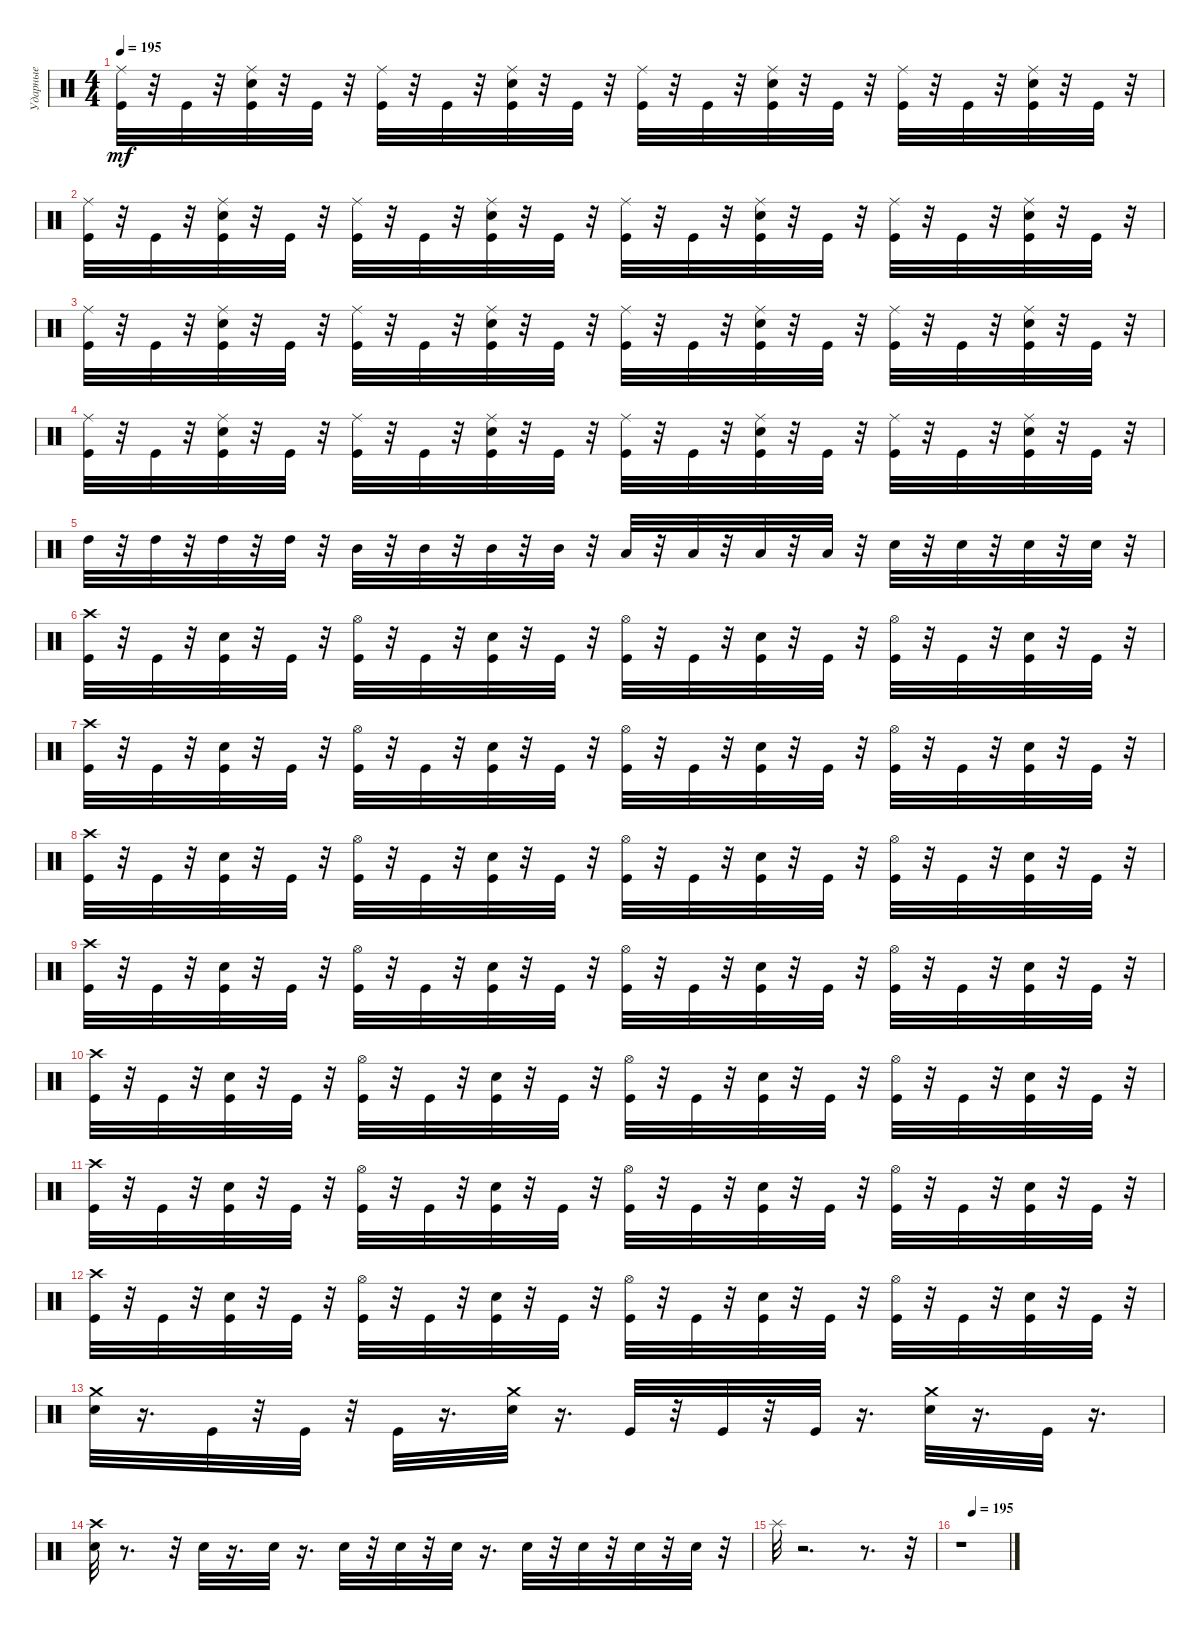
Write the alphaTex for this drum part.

\track ("Ударные" "Ударные") {instrument percussion}
\staff {score}
\articulation defaults
\ts (4 4)
\tempo 195
\clef neutral
\ks c
("Ride (middle)" "Kick (hit)").32{dy mf} r.32 "Kick (hit)".32 r.32 ("Electric Snare (hit)" "Kick (hit)" "Ride (middle)").32 r.32 "Kick (hit)".32 r.32 ("Ride (middle)" "Kick (hit)").32 r.32 "Kick (hit)".32 r.32 ("Ride (middle)" "Electric Snare (hit)" "Kick (hit)").32 r.32 "Kick (hit)".32 r.32 ("Ride (middle)" "Kick (hit)").32 r.32 "Kick (hit)".32 r.32 ("Electric Snare (hit)" "Kick (hit)" "Ride (middle)").32 r.32 "Kick (hit)".32 r.32 ("Ride (middle)" "Kick (hit)").32 r.32 "Kick (hit)".32 r.32 ("Ride (middle)" "Electric Snare (hit)" "Kick (hit)").32 r.32 "Kick (hit)".32 r.32 |
("Ride (middle)" "Kick (hit)").32 r.32 "Kick (hit)".32 r.32 ("Electric Snare (hit)" "Kick (hit)" "Ride (middle)").32 r.32 "Kick (hit)".32 r.32 ("Ride (middle)" "Kick (hit)").32 r.32 "Kick (hit)".32 r.32 ("Ride (middle)" "Electric Snare (hit)" "Kick (hit)").32 r.32 "Kick (hit)".32 r.32 ("Ride (middle)" "Kick (hit)").32 r.32 "Kick (hit)".32 r.32 ("Electric Snare (hit)" "Kick (hit)" "Ride (middle)").32 r.32 "Kick (hit)".32 r.32 ("Ride (middle)" "Kick (hit)").32 r.32 "Kick (hit)".32 r.32 ("Ride (middle)" "Electric Snare (hit)" "Kick (hit)").32 r.32 "Kick (hit)".32 r.32 |
("Ride (middle)" "Kick (hit)").32 r.32 "Kick (hit)".32 r.32 ("Electric Snare (hit)" "Kick (hit)" "Ride (middle)").32 r.32 "Kick (hit)".32 r.32 ("Ride (middle)" "Kick (hit)").32 r.32 "Kick (hit)".32 r.32 ("Ride (middle)" "Electric Snare (hit)" "Kick (hit)").32 r.32 "Kick (hit)".32 r.32 ("Ride (middle)" "Kick (hit)").32 r.32 "Kick (hit)".32 r.32 ("Electric Snare (hit)" "Kick (hit)" "Ride (middle)").32 r.32 "Kick (hit)".32 r.32 ("Ride (middle)" "Kick (hit)").32 r.32 "Kick (hit)".32 r.32 ("Ride (middle)" "Electric Snare (hit)" "Kick (hit)").32 r.32 "Kick (hit)".32 r.32 |
("Ride (middle)" "Kick (hit)").32 r.32 "Kick (hit)".32 r.32 ("Electric Snare (hit)" "Kick (hit)" "Ride (middle)").32 r.32 "Kick (hit)".32 r.32 ("Ride (middle)" "Kick (hit)").32 r.32 "Kick (hit)".32 r.32 ("Ride (middle)" "Electric Snare (hit)" "Kick (hit)").32 r.32 "Kick (hit)".32 r.32 ("Ride (middle)" "Kick (hit)").32 r.32 "Kick (hit)".32 r.32 ("Electric Snare (hit)" "Kick (hit)" "Ride (middle)").32 r.32 "Kick (hit)".32 r.32 ("Ride (middle)" "Kick (hit)").32 r.32 "Kick (hit)".32 r.32 ("Ride (middle)" "Electric Snare (hit)" "Kick (hit)").32 r.32 "Kick (hit)".32 r.32 |
"High Tom (hit)".32 r.32 "High Tom (hit)".32 r.32 "High Tom (hit)".32 r.32 "High Tom (hit)".32 r.32 "Mid Tom (hit)".32 r.32 "Mid Tom (hit)".32 r.32 "Mid Tom (hit)".32 r.32 "Mid Tom (hit)".32 r.32 "Low Tom (hit)".32 r.32 "Low Tom (hit)".32 r.32 "Low Tom (hit)".32 r.32 "Low Tom (hit)".32 r.32 "Electric Snare (hit)".32 r.32 "Electric Snare (hit)".32 r.32 "Electric Snare (hit)".32 r.32 "Electric Snare (hit)".32 r.32 |
("Crash high (hit)" "Kick (hit)").32 r.32 "Kick (hit)".32 r.32 ("Electric Snare (hit)" "Kick (hit)").32 r.32 "Kick (hit)".32 r.32 ("Hi-Hat (open)" "Kick (hit)").32 r.32 "Kick (hit)".32 r.32 ("Electric Snare (hit)" "Kick (hit)").32 r.32 "Kick (hit)".32 r.32 ("Hi-Hat (open)" "Kick (hit)").32 r.32 "Kick (hit)".32 r.32 ("Electric Snare (hit)" "Kick (hit)").32 r.32 "Kick (hit)".32 r.32 ("Hi-Hat (open)" "Kick (hit)").32 r.32 "Kick (hit)".32 r.32 ("Electric Snare (hit)" "Kick (hit)").32 r.32 "Kick (hit)".32 r.32 |
("Crash high (hit)" "Kick (hit)").32 r.32 "Kick (hit)".32 r.32 ("Electric Snare (hit)" "Kick (hit)").32 r.32 "Kick (hit)".32 r.32 ("Hi-Hat (open)" "Kick (hit)").32 r.32 "Kick (hit)".32 r.32 ("Electric Snare (hit)" "Kick (hit)").32 r.32 "Kick (hit)".32 r.32 ("Hi-Hat (open)" "Kick (hit)").32 r.32 "Kick (hit)".32 r.32 ("Electric Snare (hit)" "Kick (hit)").32 r.32 "Kick (hit)".32 r.32 ("Hi-Hat (open)" "Kick (hit)").32 r.32 "Kick (hit)".32 r.32 ("Electric Snare (hit)" "Kick (hit)").32 r.32 "Kick (hit)".32 r.32 |
("Crash high (hit)" "Kick (hit)").32 r.32 "Kick (hit)".32 r.32 ("Electric Snare (hit)" "Kick (hit)").32 r.32 "Kick (hit)".32 r.32 ("Hi-Hat (open)" "Kick (hit)").32 r.32 "Kick (hit)".32 r.32 ("Electric Snare (hit)" "Kick (hit)").32 r.32 "Kick (hit)".32 r.32 ("Hi-Hat (open)" "Kick (hit)").32 r.32 "Kick (hit)".32 r.32 ("Electric Snare (hit)" "Kick (hit)").32 r.32 "Kick (hit)".32 r.32 ("Hi-Hat (open)" "Kick (hit)").32 r.32 "Kick (hit)".32 r.32 ("Electric Snare (hit)" "Kick (hit)").32 r.32 "Kick (hit)".32 r.32 |
("Crash high (hit)" "Kick (hit)").32 r.32 "Kick (hit)".32 r.32 ("Electric Snare (hit)" "Kick (hit)").32 r.32 "Kick (hit)".32 r.32 ("Hi-Hat (open)" "Kick (hit)").32 r.32 "Kick (hit)".32 r.32 ("Electric Snare (hit)" "Kick (hit)").32 r.32 "Kick (hit)".32 r.32 ("Hi-Hat (open)" "Kick (hit)").32 r.32 "Kick (hit)".32 r.32 ("Electric Snare (hit)" "Kick (hit)").32 r.32 "Kick (hit)".32 r.32 ("Hi-Hat (open)" "Kick (hit)").32 r.32 "Kick (hit)".32 r.32 ("Electric Snare (hit)" "Kick (hit)").32 r.32 "Kick (hit)".32 r.32 |
("Crash high (hit)" "Kick (hit)").32 r.32 "Kick (hit)".32 r.32 ("Electric Snare (hit)" "Kick (hit)").32 r.32 "Kick (hit)".32 r.32 ("Hi-Hat (open)" "Kick (hit)").32 r.32 "Kick (hit)".32 r.32 ("Electric Snare (hit)" "Kick (hit)").32 r.32 "Kick (hit)".32 r.32 ("Hi-Hat (open)" "Kick (hit)").32 r.32 "Kick (hit)".32 r.32 ("Electric Snare (hit)" "Kick (hit)").32 r.32 "Kick (hit)".32 r.32 ("Hi-Hat (open)" "Kick (hit)").32 r.32 "Kick (hit)".32 r.32 ("Electric Snare (hit)" "Kick (hit)").32 r.32 "Kick (hit)".32 r.32 |
("Crash high (hit)" "Kick (hit)").32 r.32 "Kick (hit)".32 r.32 ("Electric Snare (hit)" "Kick (hit)").32 r.32 "Kick (hit)".32 r.32 ("Hi-Hat (open)" "Kick (hit)").32 r.32 "Kick (hit)".32 r.32 ("Electric Snare (hit)" "Kick (hit)").32 r.32 "Kick (hit)".32 r.32 ("Hi-Hat (open)" "Kick (hit)").32 r.32 "Kick (hit)".32 r.32 ("Electric Snare (hit)" "Kick (hit)").32 r.32 "Kick (hit)".32 r.32 ("Hi-Hat (open)" "Kick (hit)").32 r.32 "Kick (hit)".32 r.32 ("Electric Snare (hit)" "Kick (hit)").32 r.32 "Kick (hit)".32 r.32 |
("Crash high (hit)" "Kick (hit)").32 r.32 "Kick (hit)".32 r.32 ("Electric Snare (hit)" "Kick (hit)").32 r.32 "Kick (hit)".32 r.32 ("Hi-Hat (open)" "Kick (hit)").32 r.32 "Kick (hit)".32 r.32 ("Electric Snare (hit)" "Kick (hit)").32 r.32 "Kick (hit)".32 r.32 ("Hi-Hat (open)" "Kick (hit)").32 r.32 "Kick (hit)".32 r.32 ("Electric Snare (hit)" "Kick (hit)").32 r.32 "Kick (hit)".32 r.32 ("Hi-Hat (open)" "Kick (hit)").32 r.32 "Kick (hit)".32 r.32 ("Electric Snare (hit)" "Kick (hit)").32 r.32 "Kick (hit)".32 r.32 |
("Crash medium (hit)" "Electric Snare (hit)").32 r.16{d} "Kick (hit)".32 r.32 "Kick (hit)".32 r.32 "Kick (hit)".32 r.16{d} ("Crash medium (hit)" "Electric Snare (hit)").32 r.16{d} "Kick (hit)".32 r.32 "Kick (hit)".32 r.32 "Kick (hit)".32 r.16{d} ("Electric Snare (hit)" "Crash medium (hit)").32 r.16{d} "Kick (hit)".32 r.16{d} |
("Crash high (hit)" "Electric Snare (hit)").32 r.8{d} r.32 "Electric Snare (hit)".32 r.16{d} "Electric Snare (hit)".32 r.16{d} "Electric Snare (hit)".32 r.32 "Electric Snare (hit)".32 r.32 "Electric Snare (hit)".32 r.16{d} "Electric Snare (hit)".32 r.32 "Electric Snare (hit)".32 r.32 "Electric Snare (hit)".32 r.32 "Electric Snare (hit)".32 r.32 |
"Splash (hit)".32 r.2{d} r.8{d} r.32 |
\tempo (195 0.25)
r.1
